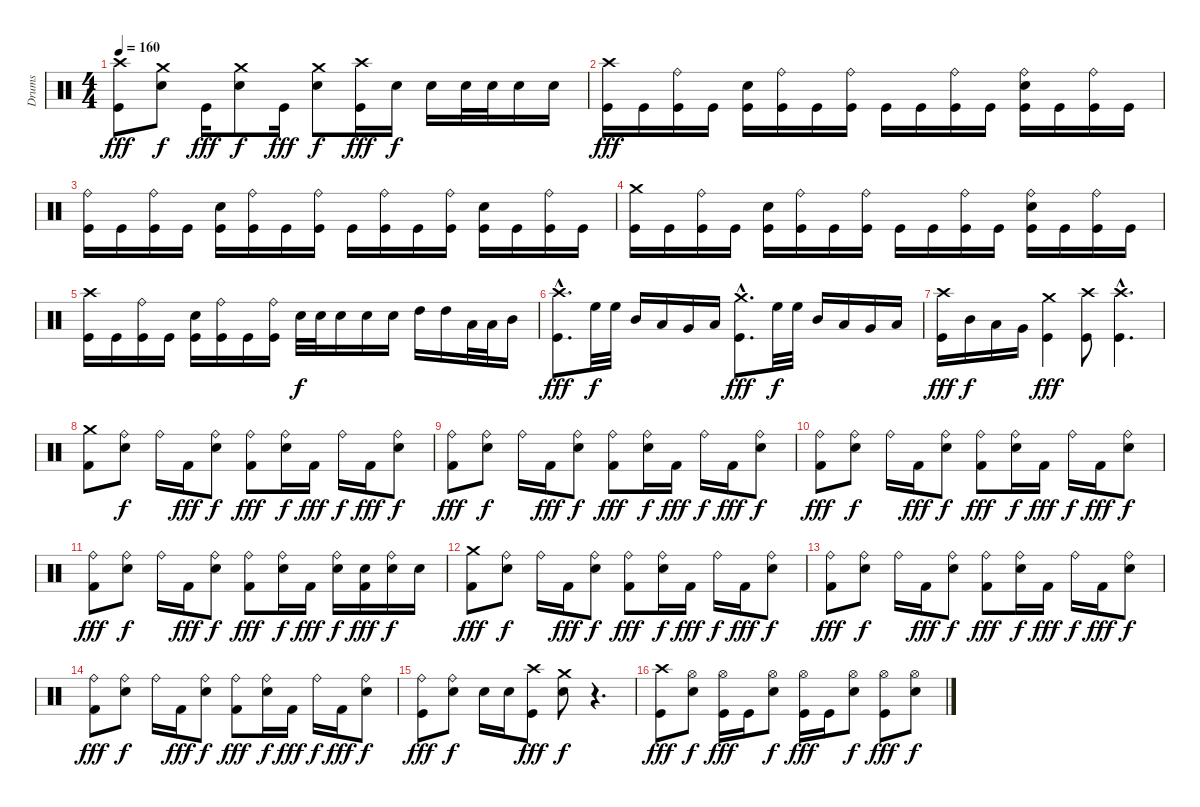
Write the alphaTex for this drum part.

\track ("Drums" "Drums") {instrument percussion}
\staff {score}
\articulation defaults
\ts (4 4)
\tempo 160
\clef neutral
\ks c
("Crash high (hit)" "Kick (hit)").8{dy fff} ("Crash medium (hit)" "Electric Snare (hit)").8{dy f} "Kick (hit)".16{dy fff} ("Crash medium (hit)" "Electric Snare (hit)").8{dy f} "Kick (hit)".16{dy fff} ("Crash medium (hit)" "Electric Snare (hit)").8{dy f} ("Crash high (hit)" "Kick (hit)").16{dy fff} "Electric Snare (hit)".16{dy f} "Electric Snare (hit)".16 "Electric Snare (hit)".32 "Electric Snare (hit)".32 "Electric Snare (hit)".16 "Electric Snare (hit)".16 |
("Crash high (hit)" "Kick (hit)").16{dy fff} "Kick (hit)".16 ("Ride (bell)" "Kick (hit)").16 "Kick (hit)".16 ("Electric Snare (hit)" "Kick (hit)").16 ("Ride (bell)" "Kick (hit)").16 "Kick (hit)".16 ("Ride (bell)" "Kick (hit)").16 "Kick (hit)".16 "Kick (hit)".16 ("Ride (bell)" "Kick (hit)").16 "Kick (hit)".16 ("Ride (bell)" "Electric Snare (hit)" "Kick (hit)").16 "Kick (hit)".16 ("Ride (bell)" "Kick (hit)").16 "Kick (hit)".16 |
("Ride (bell)" "Kick (hit)").16 "Kick (hit)".16 ("Ride (bell)" "Kick (hit)").16 "Kick (hit)".16 ("Electric Snare (hit)" "Kick (hit)").16 ("Ride (bell)" "Kick (hit)").16 "Kick (hit)".16 ("Ride (bell)" "Kick (hit)").16 "Kick (hit)".16 ("Ride (bell)" "Kick (hit)").16 "Kick (hit)".16 ("Ride (bell)" "Kick (hit)").16 ("Electric Snare (hit)" "Kick (hit)").16 "Kick (hit)".16 ("Ride (bell)" "Kick (hit)").16 "Kick (hit)".16 |
("Crash medium (hit)" "Kick (hit)").16 "Kick (hit)".16 ("Ride (bell)" "Kick (hit)").16 "Kick (hit)".16 ("Electric Snare (hit)" "Kick (hit)").16 ("Ride (bell)" "Kick (hit)").16 "Kick (hit)".16 ("Ride (bell)" "Kick (hit)").16 "Kick (hit)".16 "Kick (hit)".16 ("Ride (bell)" "Kick (hit)").16 "Kick (hit)".16 ("Ride (bell)" "Electric Snare (hit)" "Kick (hit)").16 "Kick (hit)".16 ("Ride (bell)" "Kick (hit)").16 "Kick (hit)".16 |
("Crash high (hit)" "Kick (hit)").16 "Kick (hit)".16 ("Ride (bell)" "Kick (hit)").16 "Kick (hit)".16 ("Electric Snare (hit)" "Kick (hit)").16 ("Ride (bell)" "Kick (hit)").16 "Kick (hit)".16 ("Ride (bell)" "Kick (hit)").16 "Electric Snare (hit)".32{dy f} "Electric Snare (hit)".32 "Electric Snare (hit)".16 "Electric Snare (hit)".16 "Electric Snare (hit)".16 "High Tom (hit)".16 "High Tom (hit)".16 "Low Tom (hit)".32 "Low Tom (hit)".32 "Mid Tom (hit)".16 |
("Crash high (hit)"{hac} "Kick (hit)"{hac}).8{d dy fff} "High Floor Tom (hit)".32{dy f} "High Floor Tom (hit)".32 "Mid Tom (hit)".16 "Low Tom (hit)".16 "Very Low Tom (hit)".16 "Low Floor Tom (hit)".16 ("Crash medium (hit)"{hac} "Kick (hit)"{hac}).8{d dy fff} "High Floor Tom (hit)".32{dy f} "High Floor Tom (hit)".32 "Mid Tom (hit)".16 "Low Tom (hit)".16 "Very Low Tom (hit)".16 "Low Floor Tom (hit)".16 |
("Crash high (hit)" "Kick (hit)").16{dy fff} "Mid Tom (hit)".16{dy f} "Low Tom (hit)".16 "Very Low Tom (hit)".16 ("Crash medium (hit)" "Kick (hit)").4{dy fff} ("Crash high (hit)" "Kick (hit)").8 ("Crash high (hit)"{hac} "Kick (hit)"{hac}).4{d} |
("Crash medium (hit)" "Kick (hit) 2").8 ("Ride (bell)" "Electric Snare (hit)").8{dy f} "Ride (bell)".16 "Kick (hit) 2".16{dy fff} ("Ride (bell)" "Electric Snare (hit)").8{dy f} ("Ride (bell)" "Kick (hit) 2").8{dy fff} ("Ride (bell)" "Electric Snare (hit)").16{dy f} "Kick (hit) 2".16{dy fff} "Ride (bell)".16{dy f} "Kick (hit) 2".16{dy fff} ("Ride (bell)" "Electric Snare (hit)").8{dy f} |
("Ride (bell)" "Kick (hit) 2").8{dy fff} ("Ride (bell)" "Electric Snare (hit)").8{dy f} "Ride (bell)".16 "Kick (hit) 2".16{dy fff} ("Ride (bell)" "Electric Snare (hit)").8{dy f} ("Ride (bell)" "Kick (hit) 2").8{dy fff} ("Ride (bell)" "Electric Snare (hit)").16{dy f} "Kick (hit) 2".16{dy fff} "Ride (bell)".16{dy f} "Kick (hit) 2".16{dy fff} ("Ride (bell)" "Electric Snare (hit)").8{dy f} |
("Ride (bell)" "Kick (hit) 2").8{dy fff} ("Ride (bell)" "Electric Snare (hit)").8{dy f} "Ride (bell)".16 "Kick (hit) 2".16{dy fff} ("Ride (bell)" "Electric Snare (hit)").8{dy f} ("Ride (bell)" "Kick (hit) 2").8{dy fff} ("Ride (bell)" "Electric Snare (hit)").16{dy f} "Kick (hit) 2".16{dy fff} "Ride (bell)".16{dy f} "Kick (hit) 2".16{dy fff} ("Ride (bell)" "Electric Snare (hit)").8{dy f} |
("Ride (bell)" "Kick (hit) 2").8{dy fff} ("Ride (bell)" "Electric Snare (hit)").8{dy f} "Ride (bell)".16 "Kick (hit) 2".16{dy fff} ("Ride (bell)" "Electric Snare (hit)").8{dy f} ("Ride (bell)" "Kick (hit) 2").8{dy fff} ("Ride (bell)" "Electric Snare (hit)").16{dy f} "Kick (hit) 2".16{dy fff} ("Ride (bell)" "Electric Snare (hit)").16{dy f} ("Electric Snare (hit)" "Kick (hit) 2").16{dy fff} ("Ride (bell)" "Electric Snare (hit)").16{dy f} "Electric Snare (hit)".16 |
("Crash medium (hit)" "Kick (hit) 2").8{dy fff} ("Ride (bell)" "Electric Snare (hit)").8{dy f} "Ride (bell)".16 "Kick (hit) 2".16{dy fff} ("Ride (bell)" "Electric Snare (hit)").8{dy f} ("Ride (bell)" "Kick (hit) 2").8{dy fff} ("Ride (bell)" "Electric Snare (hit)").16{dy f} "Kick (hit) 2".16{dy fff} "Ride (bell)".16{dy f} "Kick (hit) 2".16{dy fff} ("Ride (bell)" "Electric Snare (hit)").8{dy f} |
("Ride (bell)" "Kick (hit) 2").8{dy fff} ("Ride (bell)" "Electric Snare (hit)").8{dy f} "Ride (bell)".16 "Kick (hit) 2".16{dy fff} ("Ride (bell)" "Electric Snare (hit)").8{dy f} ("Ride (bell)" "Kick (hit) 2").8{dy fff} ("Ride (bell)" "Electric Snare (hit)").16{dy f} "Kick (hit) 2".16{dy fff} "Ride (bell)".16{dy f} "Kick (hit) 2".16{dy fff} ("Ride (bell)" "Electric Snare (hit)").8{dy f} |
("Ride (bell)" "Kick (hit) 2").8{dy fff} ("Ride (bell)" "Electric Snare (hit)").8{dy f} "Ride (bell)".16 "Kick (hit) 2".16{dy fff} ("Ride (bell)" "Electric Snare (hit)").8{dy f} ("Ride (bell)" "Kick (hit) 2").8{dy fff} ("Ride (bell)" "Electric Snare (hit)").16{dy f} "Kick (hit) 2".16{dy fff} "Ride (bell)".16{dy f} "Kick (hit) 2".16{dy fff} ("Ride (bell)" "Electric Snare (hit)").8{dy f} |
("Ride (bell)" "Kick (hit)").8{dy fff} ("Ride (bell)" "Electric Snare (hit)").8{dy f} "Electric Snare (hit)".16 "Electric Snare (hit)".16 ("Crash high (hit)" "Kick (hit)").8{dy fff} ("Crash medium (hit)" "Electric Snare (hit)").8{dy f} r.4{d} |
("Crash high (hit)" "Kick (hit)").8{dy fff} ("Hi-Hat (open)" "Electric Snare (hit)").8{dy f} ("Hi-Hat (open)" "Kick (hit)").16{dy fff} "Kick (hit)".16 ("Hi-Hat (open)" "Electric Snare (hit)").8{dy f} ("Hi-Hat (open)" "Kick (hit)").16{dy fff} "Kick (hit)".16 ("Hi-Hat (open)" "Electric Snare (hit)").8{dy f} ("Hi-Hat (open)" "Kick (hit)").8{dy fff} ("Hi-Hat (open)" "Electric Snare (hit)").8{dy f}
